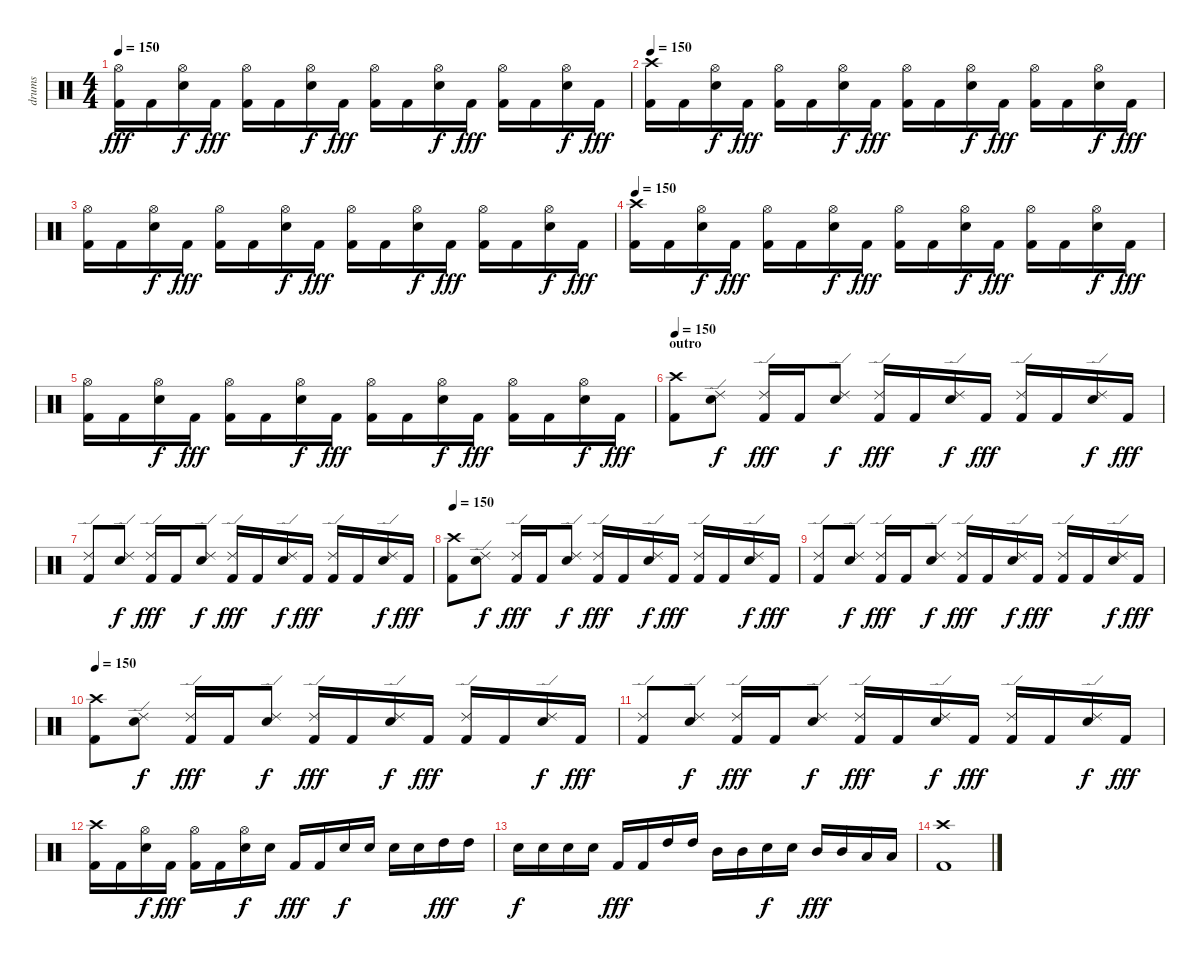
\track ("drums" "drums") {instrument percussion}
\staff {score}
\articulation defaults
\ts (4 4)
\tempo 150
\clef neutral
\ks c
("Hi-Hat (open)" "Kick (hit) 2").16{dy fff} "Kick (hit) 2".16 ("Hi-Hat (open)" "Snare (hit) 2").16{dy f} "Kick (hit) 2".16{dy fff} ("Hi-Hat (open)" "Kick (hit) 2").16 "Kick (hit) 2".16 ("Hi-Hat (open)" "Snare (hit) 2").16{dy f} "Kick (hit) 2".16{dy fff} ("Hi-Hat (open)" "Kick (hit) 2").16 "Kick (hit) 2".16 ("Hi-Hat (open)" "Snare (hit) 2").16{dy f} "Kick (hit) 2".16{dy fff} ("Hi-Hat (open)" "Kick (hit) 2").16 "Kick (hit) 2".16 ("Hi-Hat (open)" "Snare (hit) 2").16{dy f} "Kick (hit) 2".16{dy fff} |
\tempo 150
("Crash high (hit)" "Kick (hit) 2").16 "Kick (hit) 2".16 ("Hi-Hat (open)" "Snare (hit) 2").16{dy f} "Kick (hit) 2".16{dy fff} ("Hi-Hat (open)" "Kick (hit) 2").16 "Kick (hit) 2".16 ("Hi-Hat (open)" "Snare (hit) 2").16{dy f} "Kick (hit) 2".16{dy fff} ("Hi-Hat (open)" "Kick (hit) 2").16 "Kick (hit) 2".16 ("Hi-Hat (open)" "Snare (hit) 2").16{dy f} "Kick (hit) 2".16{dy fff} ("Hi-Hat (open)" "Kick (hit) 2").16 "Kick (hit) 2".16 ("Hi-Hat (open)" "Snare (hit) 2").16{dy f} "Kick (hit) 2".16{dy fff} |
("Hi-Hat (open)" "Kick (hit) 2").16 "Kick (hit) 2".16 ("Hi-Hat (open)" "Snare (hit) 2").16{dy f} "Kick (hit) 2".16{dy fff} ("Hi-Hat (open)" "Kick (hit) 2").16 "Kick (hit) 2".16 ("Hi-Hat (open)" "Snare (hit) 2").16{dy f} "Kick (hit) 2".16{dy fff} ("Hi-Hat (open)" "Kick (hit) 2").16 "Kick (hit) 2".16 ("Hi-Hat (open)" "Snare (hit) 2").16{dy f} "Kick (hit) 2".16{dy fff} ("Hi-Hat (open)" "Kick (hit) 2").16 "Kick (hit) 2".16 ("Hi-Hat (open)" "Snare (hit) 2").16{dy f} "Kick (hit) 2".16{dy fff} |
\tempo 150
("Crash high (hit)" "Kick (hit) 2").16 "Kick (hit) 2".16 ("Hi-Hat (open)" "Snare (hit) 2").16{dy f} "Kick (hit) 2".16{dy fff} ("Hi-Hat (open)" "Kick (hit) 2").16 "Kick (hit) 2".16 ("Hi-Hat (open)" "Snare (hit) 2").16{dy f} "Kick (hit) 2".16{dy fff} ("Hi-Hat (open)" "Kick (hit) 2").16 "Kick (hit) 2".16 ("Hi-Hat (open)" "Snare (hit) 2").16{dy f} "Kick (hit) 2".16{dy fff} ("Hi-Hat (open)" "Kick (hit) 2").16 "Kick (hit) 2".16 ("Hi-Hat (open)" "Snare (hit) 2").16{dy f} "Kick (hit) 2".16{dy fff} |
("Hi-Hat (open)" "Kick (hit) 2").16 "Kick (hit) 2".16 ("Hi-Hat (open)" "Snare (hit) 2").16{dy f} "Kick (hit) 2".16{dy fff} ("Hi-Hat (open)" "Kick (hit) 2").16 "Kick (hit) 2".16 ("Hi-Hat (open)" "Snare (hit) 2").16{dy f} "Kick (hit) 2".16{dy fff} ("Hi-Hat (open)" "Kick (hit) 2").16 "Kick (hit) 2".16 ("Hi-Hat (open)" "Snare (hit) 2").16{dy f} "Kick (hit) 2".16{dy fff} ("Hi-Hat (open)" "Kick (hit) 2").16 "Kick (hit) 2".16 ("Hi-Hat (open)" "Snare (hit) 2").16{dy f} "Kick (hit) 2".16{dy fff} |
\section ("" "outro")
\tempo 150
("Crash high (hit)" "Kick (hit) 2").8 ("Ride (edge) 2" "Snare (hit) 2").8{dy f} ("Ride (edge) 2" "Kick (hit) 2").16{dy fff} "Kick (hit) 2".16 ("Ride (edge) 2" "Snare (hit) 2").8{dy f} ("Ride (edge) 2" "Kick (hit) 2").16{dy fff} "Kick (hit) 2".16 ("Ride (edge) 2" "Snare (hit) 2").16{dy f} "Kick (hit) 2".16{dy fff} ("Ride (edge) 2" "Kick (hit) 2").16 "Kick (hit) 2".16 ("Ride (edge) 2" "Snare (hit) 2").16{dy f} "Kick (hit) 2".16{dy fff} |
("Ride (edge) 2" "Kick (hit) 2").8 ("Ride (edge) 2" "Snare (hit) 2").8{dy f} ("Ride (edge) 2" "Kick (hit) 2").16{dy fff} "Kick (hit) 2".16 ("Ride (edge) 2" "Snare (hit) 2").8{dy f} ("Ride (edge) 2" "Kick (hit) 2").16{dy fff} "Kick (hit) 2".16 ("Ride (edge) 2" "Snare (hit) 2").16{dy f} "Kick (hit) 2".16{dy fff} ("Ride (edge) 2" "Kick (hit) 2").16 "Kick (hit) 2".16 ("Ride (edge) 2" "Snare (hit) 2").16{dy f} "Kick (hit) 2".16{dy fff} |
\tempo 150
("Crash high (hit)" "Kick (hit) 2").8 ("Ride (edge) 2" "Snare (hit) 2").8{dy f} ("Ride (edge) 2" "Kick (hit) 2").16{dy fff} "Kick (hit) 2".16 ("Ride (edge) 2" "Snare (hit) 2").8{dy f} ("Ride (edge) 2" "Kick (hit) 2").16{dy fff} "Kick (hit) 2".16 ("Ride (edge) 2" "Snare (hit) 2").16{dy f} "Kick (hit) 2".16{dy fff} ("Ride (edge) 2" "Kick (hit) 2").16 "Kick (hit) 2".16 ("Ride (edge) 2" "Snare (hit) 2").16{dy f} "Kick (hit) 2".16{dy fff} |
("Ride (edge) 2" "Kick (hit) 2").8 ("Ride (edge) 2" "Snare (hit) 2").8{dy f} ("Ride (edge) 2" "Kick (hit) 2").16{dy fff} "Kick (hit) 2".16 ("Ride (edge) 2" "Snare (hit) 2").8{dy f} ("Ride (edge) 2" "Kick (hit) 2").16{dy fff} "Kick (hit) 2".16 ("Ride (edge) 2" "Snare (hit) 2").16{dy f} "Kick (hit) 2".16{dy fff} ("Ride (edge) 2" "Kick (hit) 2").16 "Kick (hit) 2".16 ("Ride (edge) 2" "Snare (hit) 2").16{dy f} "Kick (hit) 2".16{dy fff} |
\tempo 150
("Crash high (hit)" "Kick (hit) 2").8 ("Ride (edge) 2" "Snare (hit) 2").8{dy f} ("Ride (edge) 2" "Kick (hit) 2").16{dy fff} "Kick (hit) 2".16 ("Ride (edge) 2" "Snare (hit) 2").8{dy f} ("Ride (edge) 2" "Kick (hit) 2").16{dy fff} "Kick (hit) 2".16 ("Ride (edge) 2" "Snare (hit) 2").16{dy f} "Kick (hit) 2".16{dy fff} ("Ride (edge) 2" "Kick (hit) 2").16 "Kick (hit) 2".16 ("Ride (edge) 2" "Snare (hit) 2").16{dy f} "Kick (hit) 2".16{dy fff} |
("Ride (edge) 2" "Kick (hit) 2").8 ("Ride (edge) 2" "Snare (hit) 2").8{dy f} ("Ride (edge) 2" "Kick (hit) 2").16{dy fff} "Kick (hit) 2".16 ("Ride (edge) 2" "Snare (hit) 2").8{dy f} ("Ride (edge) 2" "Kick (hit) 2").16{dy fff} "Kick (hit) 2".16 ("Ride (edge) 2" "Snare (hit) 2").16{dy f} "Kick (hit) 2".16{dy fff} ("Ride (edge) 2" "Kick (hit) 2").16 "Kick (hit) 2".16 ("Ride (edge) 2" "Snare (hit) 2").16{dy f} "Kick (hit) 2".16{dy fff} |
("Crash high (hit)" "Kick (hit) 2").16 "Kick (hit) 2".16 ("Hi-Hat (open)" "Snare (hit) 2").16{dy f} "Kick (hit) 2".16{dy fff} ("Hi-Hat (open)" "Kick (hit) 2").16 "Kick (hit) 2".16 ("Hi-Hat (open)" "Snare (hit) 2").16{dy f} "Snare (hit) 2".16 "Kick (hit) 2".16{dy fff} "Kick (hit) 2".16 "Snare (hit) 2".16{dy f} "Snare (hit) 2".16 "Snare (hit) 2".16 "Snare (hit) 2".16 "High Tom (hit)".16{dy fff} "High Tom (hit)".16 |
"Snare (hit) 2".16{dy f} "Snare (hit) 2".16 "Snare (hit) 2".16 "Snare (hit) 2".16 "Kick (hit) 2".16{dy fff} "Kick (hit) 2".16 "High Tom (hit)".16 "High Tom (hit)".16 "Mid Tom (hit)".16 "Mid Tom (hit)".16 "Snare (hit) 2".16{dy f} "Snare (hit) 2".16 "Mid Tom (hit)".16{dy fff} "Mid Tom (hit)".16 "Low Tom (hit)".16 "Low Tom (hit)".16 |
("Crash high (hit)" "Kick (hit) 2").1
